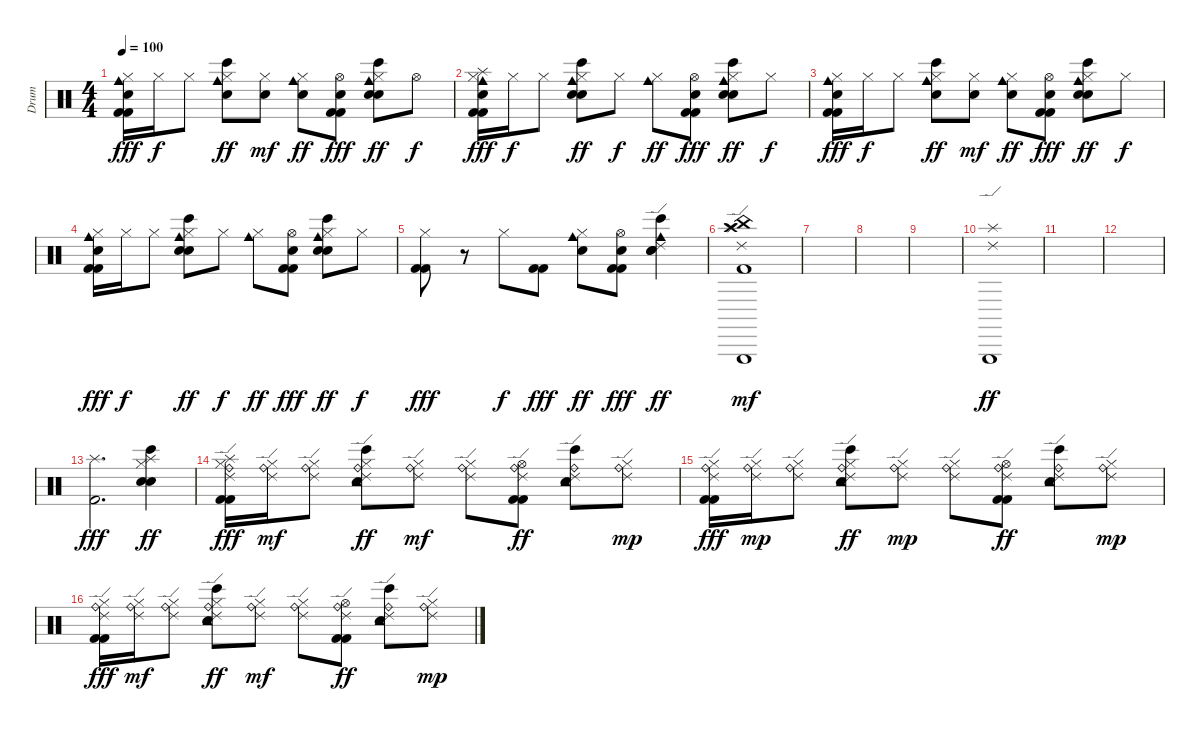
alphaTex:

\track ("Drum" "Drum") {instrument percussion}
\staff {score}
\articulation defaults
\ts (4 4)
\tempo 100
\clef neutral
\ks c
("Hand Clap (hit)" "Hi-Hat (closed)" "Cowbell medium (hit)" "Kick (hit) 2" "Kick (hit) 2").16{dy fff} "Hi-Hat (closed)".16{dy f} "Hi-Hat (closed)".8 ("Snare (hit) 2" "Hi-Hat (closed)" "Cowbell medium (hit)" "Bongo High (hit)").8{dy ff} ("Hand Clap (hit)" "Hi-Hat (closed)").8{dy mf} ("Hand Clap (hit)" "Hi-Hat (closed)" "Cowbell medium (hit)").8{dy ff} ("Hand Clap (hit)" "Hi-Hat (open)" "Kick (hit) 2" "Kick (hit) 2").8{dy fff} ("Snare (hit) 2" "Hand Clap (hit)" "Hi-Hat (closed)" "Cowbell medium (hit)" "Bongo High (hit)").8{dy ff} "Hi-Hat (open)".8{dy f} |
("Splash (hit)" "Hand Clap (hit)" "Hi-Hat (closed)" "Cowbell medium (hit)" "Kick (hit) 2" "Kick (hit) 2").16{dy fff} "Hi-Hat (closed)".16{dy f} "Hi-Hat (closed)".8 ("Snare (hit) 2" "Hand Clap (hit)" "Hi-Hat (closed)" "Cowbell medium (hit)" "Bongo High (hit)").8{dy ff} "Hi-Hat (closed)".8{dy f} ("Hi-Hat (closed)" "Cowbell medium (hit)").8{dy ff} ("Hand Clap (hit)" "Hi-Hat (open)" "Kick (hit) 2" "Kick (hit) 2").8{dy fff} ("Snare (hit) 2" "Hand Clap (hit)" "Hi-Hat (closed)" "Cowbell medium (hit)" "Bongo High (hit)").8{dy ff} "Hi-Hat (closed)".8{dy f} |
("Hand Clap (hit)" "Hi-Hat (closed)" "Cowbell medium (hit)" "Kick (hit) 2" "Kick (hit) 2").16{dy fff} "Hi-Hat (closed)".16{dy f} "Hi-Hat (closed)".8 ("Snare (hit) 2" "Hi-Hat (closed)" "Cowbell medium (hit)" "Bongo High (hit)").8{dy ff} ("Hand Clap (hit)" "Hi-Hat (closed)").8{dy mf} ("Hand Clap (hit)" "Hi-Hat (closed)" "Cowbell medium (hit)").8{dy ff} ("Hand Clap (hit)" "Hi-Hat (open)" "Kick (hit) 2" "Kick (hit) 2").8{dy fff} ("Snare (hit) 2" "Hand Clap (hit)" "Hi-Hat (closed)" "Cowbell medium (hit)" "Bongo High (hit)").8{dy ff} "Hi-Hat (closed)".8{dy f} |
("Hand Clap (hit)" "Hi-Hat (closed)" "Cowbell medium (hit)" "Kick (hit) 2" "Kick (hit) 2").16{dy fff} "Hi-Hat (closed)".16{dy f} "Hi-Hat (closed)".8 ("Snare (hit) 2" "Hand Clap (hit)" "Hi-Hat (closed)" "Cowbell medium (hit)" "Bongo High (hit)").8{dy ff} "Hi-Hat (closed)".8{dy f} ("Hi-Hat (closed)" "Cowbell medium (hit)").8{dy ff} ("Hand Clap (hit)" "Hi-Hat (open)" "Kick (hit) 2" "Kick (hit) 2").8{dy fff} ("Snare (hit) 2" "Hand Clap (hit)" "Hi-Hat (closed)" "Cowbell medium (hit)" "Bongo High (hit)").8{dy ff} "Hi-Hat (closed)".8{dy f} |
("Hi-Hat (closed)" "Kick (hit) 2" "Kick (hit) 2").8{dy fff} r.8 "Hi-Hat (closed)".8{dy f} ("Kick (hit) 2" "Kick (hit) 2").8{dy fff} ("Hand Clap (hit)" "Hi-Hat (closed)" "Cowbell medium (hit)").8{dy ff} ("Hand Clap (hit)" "Hi-Hat (open)" "Kick (hit) 2" "Kick (hit) 2").8{dy fff} ("Snare (hit) 2" "Hand Clap (hit)" "Ride (edge) 2" "Cowbell medium (hit)" "Bongo High (hit)").4{dy ff} |
("China (hit)" "Splash (hit)" "Ride (edge) 2" "Triangle (hit)" "Crash high (hit)" "Kick (hit) 2").1{dy mf} |
|
|
|
("Splash (hit)" "Ride (edge) 2" "Triangle (hit)").1{dy ff} |
|
|
("Splash (hit)" "Kick (hit) 2").2{d dy fff} ("Snare (hit) 2" "Hand Clap (hit)" "Hi-Hat (closed)" "Bongo High (hit)" "Splash (hit)").4{dy ff} |
("Splash (hit)" "Ride (bell)" "Ride (edge) 2" "Hi-Hat (closed)" "Kick (hit) 2" "Kick (hit) 2").16{dy fff volume 11} ("Ride (bell)" "Ride (edge) 2" "Hi-Hat (closed)").16{dy mf} ("Ride (bell)" "Ride (edge) 2" "Hi-Hat (closed)").8 ("Snare (hit) 2" "Ride (bell)" "Ride (edge) 2" "Hi-Hat (closed)" "Bongo High (hit)" "Tambourine (hit)").8{dy ff} ("Ride (bell)" "Ride (edge) 2" "Hi-Hat (closed)").8{dy mf} ("Ride (bell)" "Ride (edge) 2" "Hi-Hat (closed)").8 ("Ride (bell)" "Ride (edge) 2" "Hi-Hat (open)" "Kick (hit) 2" "Kick (hit) 2").8{dy ff} ("Snare (hit) 2" "Ride (bell)" "Ride (edge) 2" "Bongo High (hit)" "Tambourine (hit)").8 ("Ride (bell)" "Ride (edge) 2" "Hi-Hat (closed)").8{dy mp} |
("Ride (bell)" "Ride (edge) 2" "Hi-Hat (closed)" "Kick (hit) 2" "Kick (hit) 2").16{dy fff} ("Ride (bell)" "Ride (edge) 2" "Hi-Hat (closed)").16{dy mp} ("Ride (bell)" "Ride (edge) 2" "Hi-Hat (closed)").8 ("Snare (hit) 2" "Ride (bell)" "Ride (edge) 2" "Hi-Hat (closed)" "Bongo High (hit)" "Tambourine (hit)").8{dy ff} ("Ride (bell)" "Ride (edge) 2" "Hi-Hat (closed)").8{dy mp} ("Ride (bell)" "Ride (edge) 2" "Hi-Hat (closed)").8 ("Ride (bell)" "Ride (edge) 2" "Hi-Hat (open)" "Kick (hit) 2" "Kick (hit) 2").8{dy ff} ("Snare (hit) 2" "Ride (bell)" "Ride (edge) 2" "Bongo High (hit)" "Tambourine (hit)").8 ("Ride (bell)" "Ride (edge) 2" "Hi-Hat (closed)").8{dy mp} |
("Ride (bell)" "Ride (edge) 2" "Hi-Hat (closed)" "Kick (hit) 2" "Kick (hit) 2").16{dy fff} ("Ride (bell)" "Ride (edge) 2" "Hi-Hat (closed)").16{dy mf} ("Ride (bell)" "Ride (edge) 2" "Hi-Hat (closed)").8 ("Snare (hit) 2" "Ride (bell)" "Ride (edge) 2" "Hi-Hat (closed)" "Bongo High (hit)" "Tambourine (hit)").8{dy ff} ("Ride (bell)" "Ride (edge) 2" "Hi-Hat (closed)").8{dy mf} ("Ride (bell)" "Ride (edge) 2" "Hi-Hat (closed)").8 ("Ride (bell)" "Ride (edge) 2" "Hi-Hat (open)" "Kick (hit) 2" "Kick (hit) 2").8{dy ff} ("Snare (hit) 2" "Ride (bell)" "Ride (edge) 2" "Bongo High (hit)" "Tambourine (hit)").8 ("Ride (bell)" "Ride (edge) 2" "Hi-Hat (closed)").8{dy mp}
